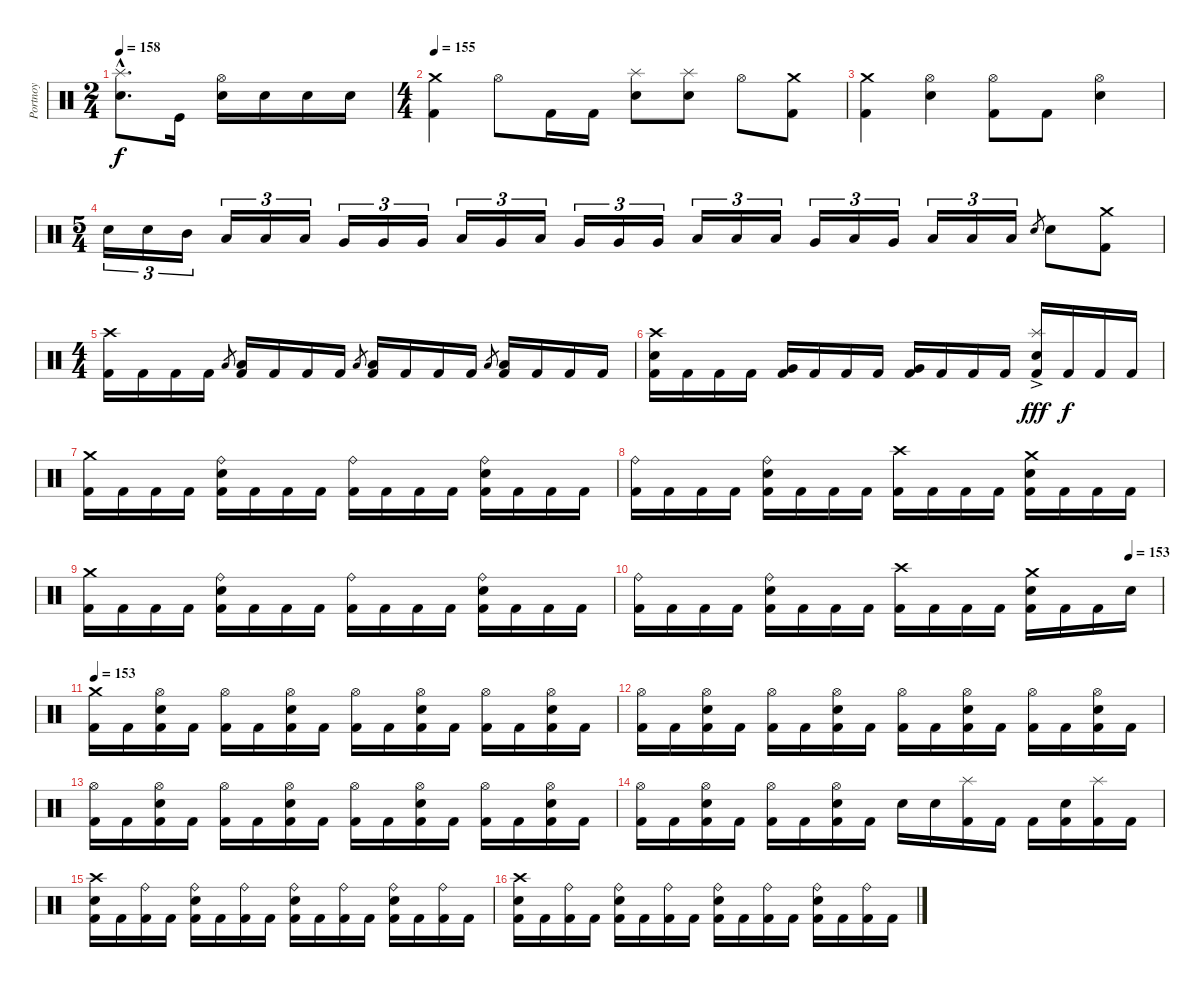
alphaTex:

\track ("Portnoy" "Portnoy") {instrument percussion}
\staff {score}
\articulation defaults
\ts (2 4)
\tempo 158
\clef neutral
\ks c
("Electric Snare (hit)"{hac} "Splash (hit)"{hac}).8{d dy f} "Kick (hit)".16 ("Electric Snare (hit)" "Hi-Hat (open)").16 "Electric Snare (hit)".16 "Electric Snare (hit)".16 "Electric Snare (hit)".16 |
\ts (4 4)
\tempo 155
("Kick (hit) 2" "Crash medium (hit)").4 "Hi-Hat (open)".8 "Kick (hit) 2".16 "Kick (hit) 2".16 ("Electric Snare (hit)" "Splash (hit)").8 ("Electric Snare (hit)" "Splash (hit)").8 "Hi-Hat (open)".8 ("Kick (hit) 2" "Crash medium (hit)").8 |
("Kick (hit) 2" "Crash medium (hit)").4 ("Electric Snare (hit)" "Hi-Hat (open)").4 ("Kick (hit) 2" "Hi-Hat (open)").8 "Kick (hit) 2".8 ("Electric Snare (hit)" "Hi-Hat (open)").4 |
\ts (5 4)
"Electric Snare (hit)".16{tu (3 2)} "Electric Snare (hit)".16{tu (3 2)} "Mid Tom (hit)".16{tu (3 2)} "Low Tom (hit)".16{tu (3 2)} "Low Tom (hit)".16{tu (3 2)} "Low Tom (hit)".16{tu (3 2)} "Very Low Tom (hit)".16{tu (3 2)} "Very Low Tom (hit)".16{tu (3 2)} "Very Low Tom (hit)".16{tu (3 2)} "Low Tom (hit)".16{tu (3 2)} "Very Low Tom (hit)".16{tu (3 2)} "Low Tom (hit)".16{tu (3 2)} "Very Low Tom (hit)".16{tu (3 2)} "Very Low Tom (hit)".16{tu (3 2)} "Very Low Tom (hit)".16{tu (3 2)} "Low Floor Tom (hit)".16{tu (3 2)} "Low Floor Tom (hit)".16{tu (3 2)} "Low Floor Tom (hit)".16{tu (3 2)} "Very Low Tom (hit)".16{tu (3 2)} "Low Floor Tom (hit)".16{tu (3 2)} "Very Low Tom (hit)".16{tu (3 2)} "Low Floor Tom (hit)".16{tu (3 2)} "Low Floor Tom (hit)".16{tu (3 2)} "Low Floor Tom (hit)".16{tu (3 2)} "Electric Snare (hit)".8{gr} "Electric Snare (hit)".8 ("Kick (hit) 2" "Crash medium (hit)").8 |
\ts (4 4)
("Kick (hit) 2" "Crash high (hit)").16 "Kick (hit) 2".16 "Kick (hit) 2".16 "Kick (hit) 2".16 "Low Tom (hit)".8{gr} ("Kick (hit) 2" "Low Tom (hit)").16 "Kick (hit) 2".16 "Kick (hit) 2".16 "Kick (hit) 2".16 "Low Tom (hit)".8{gr} ("Kick (hit) 2" "Low Tom (hit)").16 "Kick (hit) 2".16 "Kick (hit) 2".16 "Kick (hit) 2".16 "Low Tom (hit)".8{gr} ("Kick (hit) 2" "Low Tom (hit)").16 "Kick (hit) 2".16 "Kick (hit) 2".16 "Kick (hit) 2".16 |
("Kick (hit) 2" "Electric Snare (hit)" "Crash high (hit)").16 "Kick (hit) 2".16 "Kick (hit) 2".16 "Kick (hit) 2".16 ("Kick (hit) 2" "Very Low Tom (hit)").16 "Kick (hit) 2".16 "Kick (hit) 2".16 "Kick (hit) 2".16 ("Kick (hit) 2" "Very Low Tom (hit)").16 "Kick (hit) 2".16 "Kick (hit) 2".16 "Kick (hit) 2".16 ("Kick (hit) 2" "Electric Snare (hit)"{ac} "Splash (hit)").16{dy fff} "Kick (hit) 2".16{dy f} "Kick (hit) 2".16 "Kick (hit) 2".16 |
("Kick (hit) 2" "Crash medium (hit)").16 "Kick (hit) 2".16 "Kick (hit) 2".16 "Kick (hit) 2".16 ("Kick (hit) 2" "Electric Snare (hit)" "Ride (bell)").16 "Kick (hit) 2".16 "Kick (hit) 2".16 "Kick (hit) 2".16 ("Kick (hit) 2" "Ride (bell)").16 "Kick (hit) 2".16 "Kick (hit) 2".16 "Kick (hit) 2".16 ("Kick (hit) 2" "Electric Snare (hit)" "Ride (bell)").16 "Kick (hit) 2".16 "Kick (hit) 2".16 "Kick (hit) 2".16 |
("Kick (hit) 2" "Ride (bell)").16 "Kick (hit) 2".16 "Kick (hit) 2".16 "Kick (hit) 2".16 ("Kick (hit) 2" "Electric Snare (hit)" "Ride (bell)").16 "Kick (hit) 2".16 "Kick (hit) 2".16 "Kick (hit) 2".16 ("Kick (hit) 2" "Crash high (hit)").16 "Kick (hit) 2".16 "Kick (hit) 2".16 "Kick (hit) 2".16 ("Kick (hit) 2" "Electric Snare (hit)" "Crash medium (hit)").16 "Kick (hit) 2".16 "Kick (hit) 2".16 "Kick (hit) 2".16 |
("Kick (hit) 2" "Crash medium (hit)").16 "Kick (hit) 2".16 "Kick (hit) 2".16 "Kick (hit) 2".16 ("Kick (hit) 2" "Electric Snare (hit)" "Ride (bell)").16 "Kick (hit) 2".16 "Kick (hit) 2".16 "Kick (hit) 2".16 ("Kick (hit) 2" "Ride (bell)").16 "Kick (hit) 2".16 "Kick (hit) 2".16 "Kick (hit) 2".16 ("Kick (hit) 2" "Electric Snare (hit)" "Ride (bell)").16 "Kick (hit) 2".16 "Kick (hit) 2".16 "Kick (hit) 2".16 |
\tempo (153 0.9375)
("Kick (hit) 2" "Ride (bell)").16 "Kick (hit) 2".16 "Kick (hit) 2".16 "Kick (hit) 2".16 ("Kick (hit) 2" "Electric Snare (hit)" "Ride (bell)").16 "Kick (hit) 2".16 "Kick (hit) 2".16 "Kick (hit) 2".16 ("Kick (hit) 2" "Crash high (hit)").16 "Kick (hit) 2".16 "Kick (hit) 2".16 "Kick (hit) 2".16 ("Kick (hit) 2" "Electric Snare (hit)" "Crash medium (hit)").16 "Kick (hit) 2".16 "Kick (hit) 2".16 "Electric Snare (hit)".16 |
\tempo 153
("Kick (hit) 2" "Crash medium (hit)").16 "Kick (hit) 2".16 ("Kick (hit) 2" "Electric Snare (hit)" "Hi-Hat (open)").16 "Kick (hit) 2".16 ("Kick (hit) 2" "Hi-Hat (open)").16 "Kick (hit) 2".16 ("Kick (hit) 2" "Electric Snare (hit)" "Hi-Hat (open)").16 "Kick (hit) 2".16 ("Kick (hit) 2" "Hi-Hat (open)").16 "Kick (hit) 2".16 ("Kick (hit) 2" "Electric Snare (hit)" "Hi-Hat (open)").16 "Kick (hit) 2".16 ("Kick (hit) 2" "Hi-Hat (open)").16 "Kick (hit) 2".16 ("Kick (hit) 2" "Electric Snare (hit)" "Hi-Hat (open)").16 "Kick (hit) 2".16 |
("Kick (hit) 2" "Hi-Hat (open)").16 "Kick (hit) 2".16 ("Kick (hit) 2" "Electric Snare (hit)" "Hi-Hat (open)").16 "Kick (hit) 2".16 ("Kick (hit) 2" "Hi-Hat (open)").16 "Kick (hit) 2".16 ("Kick (hit) 2" "Electric Snare (hit)" "Hi-Hat (open)").16 "Kick (hit) 2".16 ("Kick (hit) 2" "Hi-Hat (open)").16 "Kick (hit) 2".16 ("Kick (hit) 2" "Electric Snare (hit)" "Hi-Hat (open)").16 "Kick (hit) 2".16 ("Kick (hit) 2" "Hi-Hat (open)").16 "Kick (hit) 2".16 ("Kick (hit) 2" "Electric Snare (hit)" "Hi-Hat (open)").16 "Kick (hit) 2".16 |
("Kick (hit) 2" "Hi-Hat (open)").16 "Kick (hit) 2".16 ("Kick (hit) 2" "Electric Snare (hit)" "Hi-Hat (open)").16 "Kick (hit) 2".16 ("Kick (hit) 2" "Hi-Hat (open)").16 "Kick (hit) 2".16 ("Kick (hit) 2" "Electric Snare (hit)" "Hi-Hat (open)").16 "Kick (hit) 2".16 ("Kick (hit) 2" "Hi-Hat (open)").16 "Kick (hit) 2".16 ("Kick (hit) 2" "Electric Snare (hit)" "Hi-Hat (open)").16 "Kick (hit) 2".16 ("Kick (hit) 2" "Hi-Hat (open)").16 "Kick (hit) 2".16 ("Kick (hit) 2" "Electric Snare (hit)" "Hi-Hat (open)").16 "Kick (hit) 2".16 |
("Kick (hit) 2" "Hi-Hat (open)").16 "Kick (hit) 2".16 ("Kick (hit) 2" "Electric Snare (hit)" "Hi-Hat (open)").16 "Kick (hit) 2".16 ("Kick (hit) 2" "Hi-Hat (open)").16 "Kick (hit) 2".16 ("Kick (hit) 2" "Electric Snare (hit)" "Hi-Hat (open)").16 "Kick (hit) 2".16 "Electric Snare (hit)".16 "Electric Snare (hit)".16 ("Kick (hit) 2" "Splash (hit)").16 "Kick (hit) 2".16 "Kick (hit) 2".16 ("Kick (hit) 2" "Electric Snare (hit)").16 ("Kick (hit) 2" "Splash (hit)").16 "Kick (hit) 2".16 |
("Kick (hit) 2" "Electric Snare (hit)" "Crash high (hit)").16 "Kick (hit) 2".16 ("Kick (hit) 2" "Ride (bell)").16 "Kick (hit) 2".16 ("Kick (hit) 2" "Electric Snare (hit)" "Ride (bell)").16 "Kick (hit) 2".16 ("Kick (hit) 2" "Ride (bell)").16 "Kick (hit) 2".16 ("Kick (hit) 2" "Electric Snare (hit)" "Ride (bell)").16 "Kick (hit) 2".16 ("Kick (hit) 2" "Ride (bell)").16 "Kick (hit) 2".16 ("Kick (hit) 2" "Electric Snare (hit)" "Ride (bell)").16 "Kick (hit) 2".16 ("Kick (hit) 2" "Ride (bell)").16 "Kick (hit) 2".16 |
("Kick (hit) 2" "Electric Snare (hit)" "Crash high (hit)").16 "Kick (hit) 2".16 ("Kick (hit) 2" "Ride (bell)").16 "Kick (hit) 2".16 ("Kick (hit) 2" "Electric Snare (hit)" "Ride (bell)").16 "Kick (hit) 2".16 ("Kick (hit) 2" "Ride (bell)").16 "Kick (hit) 2".16 ("Kick (hit) 2" "Electric Snare (hit)" "Ride (bell)").16 "Kick (hit) 2".16 ("Kick (hit) 2" "Ride (bell)").16 "Kick (hit) 2".16 ("Kick (hit) 2" "Electric Snare (hit)" "Ride (bell)").16 "Kick (hit) 2".16 ("Kick (hit) 2" "Ride (bell)").16 "Kick (hit) 2".16
